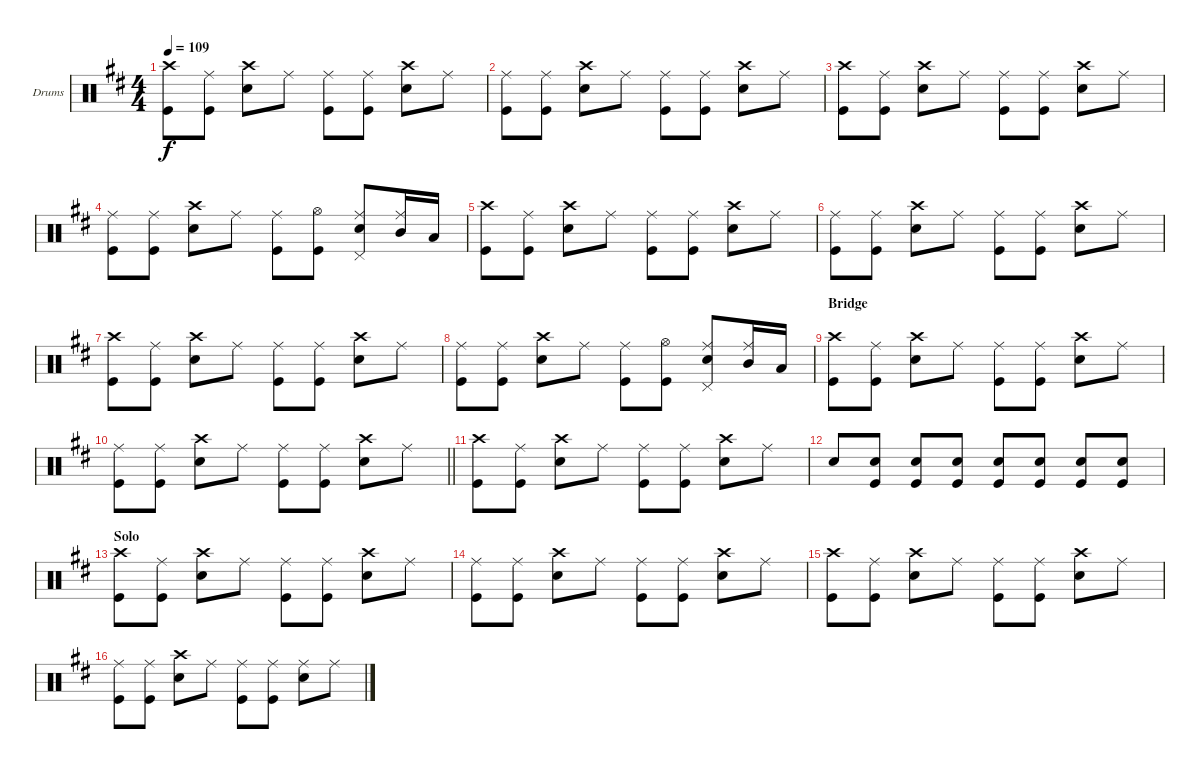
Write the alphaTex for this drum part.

\bracketExtendMode groupsimilarinstruments
\firstSystemTrackNameOrientation horizontal
\otherSystemsTrackNameOrientation horizontal
\track ("Drumkit" "Drums") {instrument percussion}
\staff {score}
\articulation defaults
\ts (4 4)
\tempo 109
\clef neutral
\ks d
("Kick (hit)" "Crash high (hit)").8{dy f} ("Kick (hit)" "Ride (middle)").8 ("Snare (hit) 2" "Crash high (hit)").8 "Ride (middle)".8 ("Kick (hit)" "Ride (middle)").8 ("Kick (hit)" "Ride (middle)").8 ("Snare (hit) 2" "Crash high (hit)").8 "Ride (middle)".8 |
("Kick (hit)" "Ride (middle)").8 ("Kick (hit)" "Ride (middle)").8 ("Snare (hit) 2" "Crash high (hit)").8 "Ride (middle)".8 ("Kick (hit)" "Ride (middle)").8 ("Kick (hit)" "Ride (middle)").8 ("Snare (hit) 2" "Crash high (hit)").8 "Ride (middle)".8 |
("Kick (hit)" "Crash high (hit)").8 ("Kick (hit)" "Ride (middle)").8 ("Snare (hit) 2" "Crash high (hit)").8 "Ride (middle)".8 ("Kick (hit)" "Ride (middle)").8 ("Kick (hit)" "Ride (middle)").8 ("Snare (hit) 2" "Crash high (hit)").8 "Ride (middle)".8 |
("Kick (hit)" "Ride (middle)").8 ("Kick (hit)" "Ride (middle)").8 ("Snare (hit) 2" "Crash high (hit)").8 "Ride (middle)".8 ("Kick (hit)" "Ride (middle)").8 ("Kick (hit)" "Hi-Hat (open)").8 ("Snare (hit) 2" "Pedal Hi-Hat (hit)" "Ride (middle)").8 ("Ride (middle)" "Mid Tom (hit)").16 "Low Tom (hit)".16 |
("Kick (hit)" "Crash high (hit)").8 ("Kick (hit)" "Ride (middle)").8 ("Snare (hit) 2" "Crash high (hit)").8 "Ride (middle)".8 ("Kick (hit)" "Ride (middle)").8 ("Kick (hit)" "Ride (middle)").8 ("Snare (hit) 2" "Crash high (hit)").8 "Ride (middle)".8 |
("Kick (hit)" "Ride (middle)").8 ("Kick (hit)" "Ride (middle)").8 ("Snare (hit) 2" "Crash high (hit)").8 "Ride (middle)".8 ("Kick (hit)" "Ride (middle)").8 ("Kick (hit)" "Ride (middle)").8 ("Snare (hit) 2" "Crash high (hit)").8 "Ride (middle)".8 |
("Kick (hit)" "Crash high (hit)").8 ("Kick (hit)" "Ride (middle)").8 ("Snare (hit) 2" "Crash high (hit)").8 "Ride (middle)".8 ("Kick (hit)" "Ride (middle)").8 ("Kick (hit)" "Ride (middle)").8 ("Snare (hit) 2" "Crash high (hit)").8 "Ride (middle)".8 |
("Kick (hit)" "Ride (middle)").8 ("Kick (hit)" "Ride (middle)").8 ("Snare (hit) 2" "Crash high (hit)").8 "Ride (middle)".8 ("Kick (hit)" "Ride (middle)").8 ("Kick (hit)" "Hi-Hat (open)").8 ("Snare (hit) 2" "Pedal Hi-Hat (hit)" "Ride (middle)").8 ("Ride (middle)" "Mid Tom (hit)").16 "Low Tom (hit)".16 |
\section ("" "Bridge")
("Kick (hit)" "Crash high (hit)").8 ("Kick (hit)" "Ride (middle)").8 ("Snare (hit) 2" "Crash high (hit)").8 "Ride (middle)".8 ("Kick (hit)" "Ride (middle)").8 ("Kick (hit)" "Ride (middle)").8 ("Snare (hit) 2" "Crash high (hit)").8 "Ride (middle)".8 |
\barLineRight lightlight
("Kick (hit)" "Ride (middle)").8 ("Kick (hit)" "Ride (middle)").8 ("Snare (hit) 2" "Crash high (hit)").8 "Ride (middle)".8 ("Kick (hit)" "Ride (middle)").8 ("Kick (hit)" "Ride (middle)").8 ("Snare (hit) 2" "Crash high (hit)").8 "Ride (middle)".8 |
("Kick (hit)" "Crash high (hit)").8 ("Kick (hit)" "Ride (middle)").8 ("Snare (hit) 2" "Crash high (hit)").8 "Ride (middle)".8 ("Kick (hit)" "Ride (middle)").8 ("Kick (hit)" "Ride (middle)").8 ("Snare (hit) 2" "Crash high (hit)").8 "Ride (middle)".8 |
"Snare (hit) 2".8 ("Snare (hit) 2" "Kick (hit)").8 ("Snare (hit) 2" "Kick (hit)").8 ("Snare (hit) 2" "Kick (hit)").8 ("Snare (hit) 2" "Kick (hit)").8 ("Snare (hit) 2" "Kick (hit)").8 ("Snare (hit) 2" "Kick (hit)").8 ("Snare (hit) 2" "Kick (hit)").8 |
\section ("" "Solo")
("Kick (hit)" "Crash high (hit)").8 ("Kick (hit)" "Ride (middle)").8 ("Snare (hit) 2" "Crash high (hit)").8 "Ride (middle)".8 ("Kick (hit)" "Ride (middle)").8 ("Kick (hit)" "Ride (middle)").8 ("Snare (hit) 2" "Crash high (hit)").8 "Ride (middle)".8 |
("Kick (hit)" "Ride (middle)").8 ("Kick (hit)" "Ride (middle)").8 ("Snare (hit) 2" "Crash high (hit)").8 "Ride (middle)".8 ("Kick (hit)" "Ride (middle)").8 ("Kick (hit)" "Ride (middle)").8 ("Snare (hit) 2" "Crash high (hit)").8 "Ride (middle)".8 |
("Kick (hit)" "Crash high (hit)").8 ("Kick (hit)" "Ride (middle)").8 ("Snare (hit) 2" "Crash high (hit)").8 "Ride (middle)".8 ("Kick (hit)" "Ride (middle)").8 ("Kick (hit)" "Ride (middle)").8 ("Snare (hit) 2" "Crash high (hit)").8 "Ride (middle)".8 |
("Kick (hit)" "Ride (middle)").8 ("Kick (hit)" "Ride (middle)").8 ("Snare (hit) 2" "Crash high (hit)").8 "Ride (middle)".8 ("Kick (hit)" "Ride (middle)").8 ("Kick (hit)" "Ride (middle)").8 ("Snare (hit) 2" "Ride (middle)").8 "Ride (middle)".8
